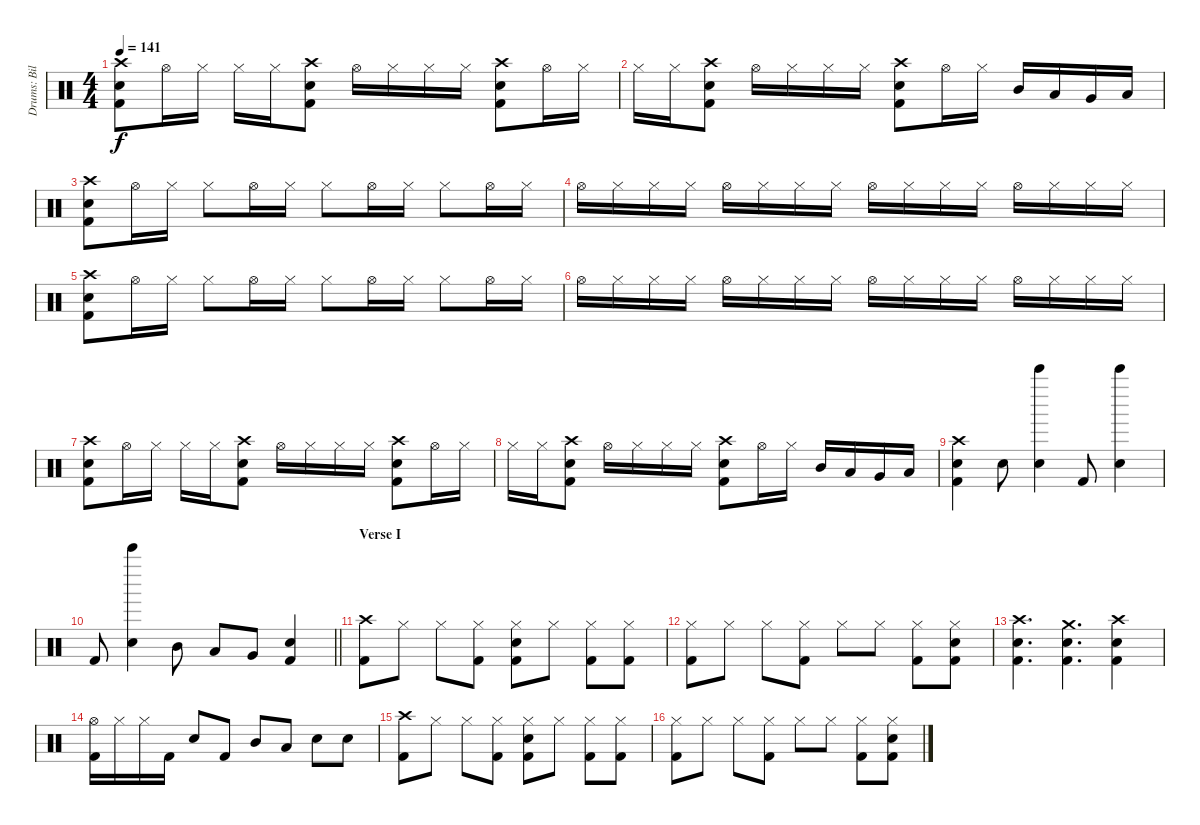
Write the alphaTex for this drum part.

\track ("Drums: Bill" "Drums: Bil") {instrument percussion}
\staff {score}
\articulation defaults
\ts (4 4)
\tempo 141
\clef neutral
\ks c
("Crash high (hit)" "Snare (hit) 2" "Kick (hit) 2").8{dy f} "Hi-Hat (open)".16 "Hi-Hat (closed)".16 "Hi-Hat (closed)".16 "Hi-Hat (closed)".16 ("Crash high (hit)" "Snare (hit) 2" "Kick (hit) 2").8 "Hi-Hat (open)".16 "Hi-Hat (closed)".16 "Hi-Hat (closed)".16 "Hi-Hat (closed)".16 ("Crash high (hit)" "Snare (hit) 2" "Kick (hit) 2").8 "Hi-Hat (open)".16 "Hi-Hat (closed)".16 |
"Hi-Hat (closed)".16 "Hi-Hat (closed)".16 ("Crash high (hit)" "Snare (hit) 2" "Kick (hit) 2").8 "Hi-Hat (open)".16 "Hi-Hat (closed)".16 "Hi-Hat (closed)".16 "Hi-Hat (closed)".16 ("Crash high (hit)" "Snare (hit) 2" "Kick (hit) 2").8 "Hi-Hat (open)".16 "Hi-Hat (closed)".16 "Mid Tom (hit)".16 "Low Tom (hit)".16 "Very Low Tom (hit)".16 "Low Floor Tom (hit)".16 |
("Crash high (hit)" "Snare (hit) 2" "Kick (hit) 2").8 "Hi-Hat (open)".16 "Hi-Hat (closed)".16 "Hi-Hat (closed)".8 "Hi-Hat (open)".16 "Hi-Hat (closed)".16 "Hi-Hat (closed)".8 "Hi-Hat (open)".16 "Hi-Hat (closed)".16 "Hi-Hat (closed)".8 "Hi-Hat (open)".16 "Hi-Hat (closed)".16 |
"Hi-Hat (open)".16 "Hi-Hat (closed)".16 "Hi-Hat (closed)".16 "Hi-Hat (closed)".16 "Hi-Hat (open)".16 "Hi-Hat (closed)".16 "Hi-Hat (closed)".16 "Hi-Hat (closed)".16 "Hi-Hat (open)".16 "Hi-Hat (closed)".16 "Hi-Hat (closed)".16 "Hi-Hat (closed)".16 "Hi-Hat (open)".16 "Hi-Hat (closed)".16 "Hi-Hat (closed)".16 "Hi-Hat (closed)".16 |
("Crash high (hit)" "Snare (hit) 2" "Kick (hit) 2").8 "Hi-Hat (open)".16 "Hi-Hat (closed)".16 "Hi-Hat (closed)".8 "Hi-Hat (open)".16 "Hi-Hat (closed)".16 "Hi-Hat (closed)".8 "Hi-Hat (open)".16 "Hi-Hat (closed)".16 "Hi-Hat (closed)".8 "Hi-Hat (open)".16 "Hi-Hat (closed)".16 |
"Hi-Hat (open)".16 "Hi-Hat (closed)".16 "Hi-Hat (closed)".16 "Hi-Hat (closed)".16 "Hi-Hat (open)".16 "Hi-Hat (closed)".16 "Hi-Hat (closed)".16 "Hi-Hat (closed)".16 "Hi-Hat (open)".16 "Hi-Hat (closed)".16 "Hi-Hat (closed)".16 "Hi-Hat (closed)".16 "Hi-Hat (open)".16 "Hi-Hat (closed)".16 "Hi-Hat (closed)".16 "Hi-Hat (closed)".16 |
("Crash high (hit)" "Snare (hit) 2" "Kick (hit) 2").8 "Hi-Hat (open)".16 "Hi-Hat (closed)".16 "Hi-Hat (closed)".16 "Hi-Hat (closed)".16 ("Crash high (hit)" "Snare (hit) 2" "Kick (hit) 2").8 "Hi-Hat (open)".16 "Hi-Hat (closed)".16 "Hi-Hat (closed)".16 "Hi-Hat (closed)".16 ("Crash high (hit)" "Snare (hit) 2" "Kick (hit) 2").8 "Hi-Hat (open)".16 "Hi-Hat (closed)".16 |
"Hi-Hat (closed)".16 "Hi-Hat (closed)".16 ("Crash high (hit)" "Snare (hit) 2" "Kick (hit) 2").8 "Hi-Hat (open)".16 "Hi-Hat (closed)".16 "Hi-Hat (closed)".16 "Hi-Hat (closed)".16 ("Crash high (hit)" "Snare (hit) 2" "Kick (hit) 2").8 "Hi-Hat (open)".16 "Hi-Hat (closed)".16 "Mid Tom (hit)".16 "Low Tom (hit)".16 "Very Low Tom (hit)".16 "Low Floor Tom (hit)".16 |
("Crash high (hit)" "Snare (hit) 2" "Kick (hit) 2").4 "Snare (hit) 2".8 ("Bell Tree (hit)" "Snare (hit) 2").4 "Kick (hit) 2".8 ("Bell Tree (hit)" "Snare (hit) 2").4 |
\barLineRight lightlight "Kick (hit) 2".8
("Bell Tree (hit)" "Snare (hit) 2").4 "Mid Tom (hit)".8 "Low Tom (hit)".8 "Very Low Tom (hit)".8 ("Snare (hit) 2" "Kick (hit) 2").4 |
\section ("" "Verse I")
("Crash high (hit)" "Kick (hit) 2").8 "Hi-Hat (closed)".8 "Hi-Hat (closed)".8 ("Hi-Hat (closed)" "Kick (hit) 2").8 ("Hi-Hat (closed)" "Snare (hit) 2" "Kick (hit) 2").8 "Hi-Hat (closed)".8 ("Hi-Hat (closed)" "Kick (hit) 2").8 ("Hi-Hat (closed)" "Kick (hit) 2").8 |
("Hi-Hat (closed)" "Kick (hit) 2").8 "Hi-Hat (closed)".8 "Hi-Hat (closed)".8 ("Hi-Hat (closed)" "Kick (hit) 2").8 "Hi-Hat (closed)".8 "Hi-Hat (closed)".8 ("Hi-Hat (closed)" "Kick (hit) 2").8 ("Hi-Hat (closed)" "Snare (hit) 2" "Kick (hit) 2").8 |
("Crash high (hit)" "Snare (hit) 2" "Kick (hit) 2").4{d} ("Crash medium (hit)" "Snare (hit) 2" "Kick (hit) 2").4{d} ("Crash high (hit)" "Snare (hit) 2" "Kick (hit) 2").4 |
("Hi-Hat (open)" "Kick (hit) 2").16 "Hi-Hat (closed)".16 "Hi-Hat (closed)".16 "Kick (hit) 2".16 "Snare (hit) 2".8 "Kick (hit) 2".8 "Mid Tom (hit)".8 "Low Tom (hit)".8 "Snare (hit) 2".8 "Snare (hit) 2".8 |
("Crash high (hit)" "Kick (hit) 2").8 "Hi-Hat (closed)".8 "Hi-Hat (closed)".8 ("Hi-Hat (closed)" "Kick (hit) 2").8 ("Hi-Hat (closed)" "Snare (hit) 2" "Kick (hit) 2").8 "Hi-Hat (closed)".8 ("Hi-Hat (closed)" "Kick (hit) 2").8 ("Hi-Hat (closed)" "Kick (hit) 2").8 |
("Hi-Hat (closed)" "Kick (hit) 2").8 "Hi-Hat (closed)".8 "Hi-Hat (closed)".8 ("Hi-Hat (closed)" "Kick (hit) 2").8 "Hi-Hat (closed)".8 "Hi-Hat (closed)".8 ("Hi-Hat (closed)" "Kick (hit) 2").8 ("Hi-Hat (closed)" "Snare (hit) 2" "Kick (hit) 2").8
